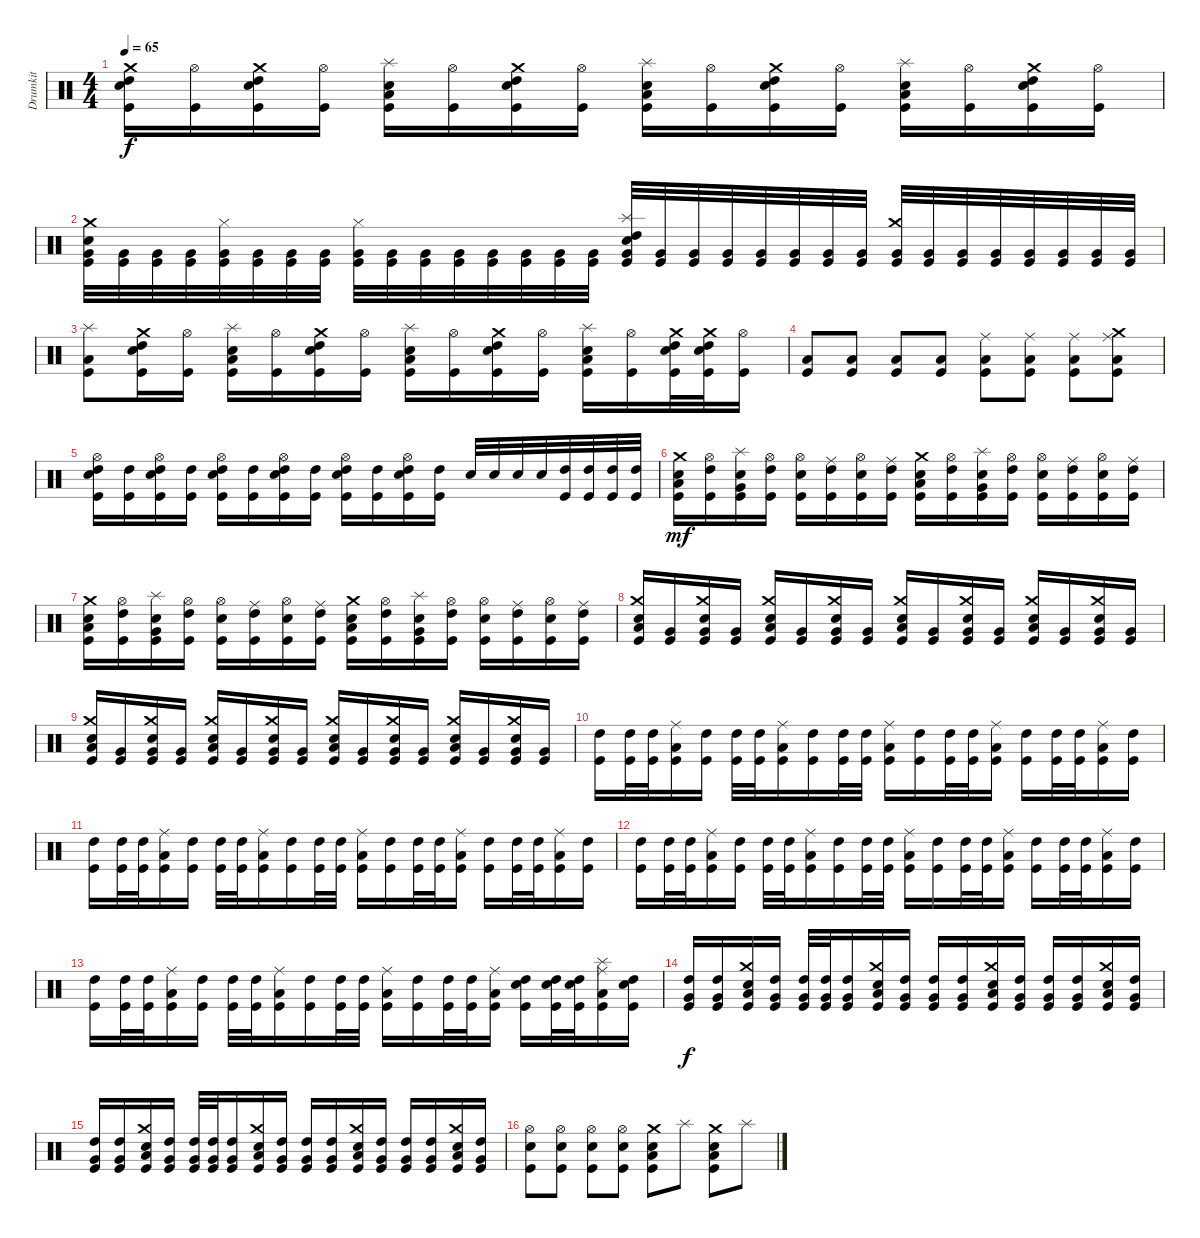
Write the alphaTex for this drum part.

\track ("Drumkit" "Drumkit") {instrument percussion}
\staff {score}
\articulation defaults
\ts (4 4)
\tempo 65
\clef neutral
\ks c
("Kick (hit)" "Snare (hit) 2" "High Tom (hit)" "Crash medium (hit)").16{dy f} ("Kick (hit)" "Hi-Hat (open)").16 ("Kick (hit)" "Snare (hit) 2" "High Tom (hit)" "Crash medium (hit)").16 ("Kick (hit)" "Hi-Hat (open)").16 ("Kick (hit)" "Low Tom (hit)" "Splash (hit)" "Snare (hit) 2").16 ("Kick (hit)" "Hi-Hat (open)").16 ("Kick (hit)" "Snare (hit) 2" "High Tom (hit)" "Crash medium (hit)").16 ("Kick (hit)" "Hi-Hat (open)").16 ("Kick (hit)" "Low Tom (hit)" "Splash (hit)" "Snare (hit) 2").16 ("Kick (hit)" "Hi-Hat (open)").16 ("Kick (hit)" "Snare (hit) 2" "High Tom (hit)" "Crash medium (hit)").16 ("Kick (hit)" "Hi-Hat (open)").16 ("Kick (hit)" "Low Tom (hit)" "Splash (hit)" "Snare (hit) 2").16 ("Kick (hit)" "Hi-Hat (open)").16 ("Kick (hit)" "Snare (hit) 2" "High Tom (hit)" "Crash medium (hit)").16 ("Kick (hit)" "Hi-Hat (open)").16 |
("Kick (hit)" "Very Low Tom (hit)" "Snare (hit) 2" "Crash medium (hit)").32 ("Kick (hit)" "Very Low Tom (hit)").32 ("Kick (hit)" "Very Low Tom (hit)").32 ("Kick (hit)" "Very Low Tom (hit)").32 ("Kick (hit)" "Very Low Tom (hit)" "Hi-Hat (closed)").32 ("Kick (hit)" "Very Low Tom (hit)").32 ("Kick (hit)" "Very Low Tom (hit)").32 ("Kick (hit)" "Very Low Tom (hit)").32 ("Kick (hit)" "Very Low Tom (hit)" "Hi-Hat (closed)").32 ("Kick (hit)" "Very Low Tom (hit)").32 ("Kick (hit)" "Very Low Tom (hit)").32 ("Kick (hit)" "Very Low Tom (hit)").32 ("Kick (hit)" "Very Low Tom (hit)").32 ("Kick (hit)" "Very Low Tom (hit)").32 ("Kick (hit)" "Very Low Tom (hit)").32 ("Kick (hit)" "Very Low Tom (hit)").32 ("Kick (hit)" "Very Low Tom (hit)" "Snare (hit) 2" "High Tom (hit)" "Splash (hit)").32 ("Kick (hit)" "Very Low Tom (hit)").32 ("Kick (hit)" "Very Low Tom (hit)").32 ("Kick (hit)" "Very Low Tom (hit)").32 ("Kick (hit)" "Very Low Tom (hit)").32 ("Kick (hit)" "Very Low Tom (hit)").32 ("Kick (hit)" "Very Low Tom (hit)").32 ("Kick (hit)" "Very Low Tom (hit)").32 ("Kick (hit)" "Very Low Tom (hit)" "Crash medium (hit)").32 ("Kick (hit)" "Very Low Tom (hit)").32 ("Kick (hit)" "Very Low Tom (hit)").32 ("Kick (hit)" "Very Low Tom (hit)").32 ("Kick (hit)" "Very Low Tom (hit)").32 ("Kick (hit)" "Very Low Tom (hit)").32 ("Kick (hit)" "Very Low Tom (hit)").32 ("Kick (hit)" "Very Low Tom (hit)").32 |
("Splash (hit)" "Kick (hit)" "Low Tom (hit)").8 ("Kick (hit)" "Snare (hit) 2" "High Tom (hit)" "Crash medium (hit)").16 ("Kick (hit)" "Hi-Hat (open)").16 ("Kick (hit)" "Low Tom (hit)" "Splash (hit)" "Snare (hit) 2").16 ("Kick (hit)" "Hi-Hat (open)").16 ("Kick (hit)" "Snare (hit) 2" "High Tom (hit)" "Crash medium (hit)").16 ("Kick (hit)" "Hi-Hat (open)").16 ("Kick (hit)" "Low Tom (hit)" "Splash (hit)" "Snare (hit) 2").16 ("Kick (hit)" "Hi-Hat (open)").16 ("Kick (hit)" "Snare (hit) 2" "High Tom (hit)" "Crash medium (hit)").16 ("Kick (hit)" "Hi-Hat (open)").16 ("Kick (hit)" "Low Tom (hit)" "Splash (hit)" "Snare (hit) 2").16 ("Kick (hit)" "Hi-Hat (open)").16 ("Kick (hit)" "Snare (hit) 2" "High Tom (hit)" "Crash medium (hit)").32 ("Kick (hit)" "Snare (hit) 2" "High Tom (hit)" "Crash medium (hit)").32 ("Kick (hit)" "Hi-Hat (open)").16 |
("Kick (hit)" "Low Tom (hit)").8 ("Kick (hit)" "Low Tom (hit)").8 ("Kick (hit)" "Low Tom (hit)").8 ("Kick (hit)" "Low Tom (hit)").8 ("Kick (hit)" "Low Tom (hit)" "Ride (middle)").8 ("Kick (hit)" "Low Tom (hit)" "Ride (middle)").8 ("Kick (hit)" "Low Tom (hit)" "Ride (middle)").8 ("Kick (hit)" "Low Tom (hit)" "Ride (middle)" "Crash medium (hit)").8 |
("Kick (hit)" "Snare (hit) 2" "Hi-Hat (open)" "High Tom (hit)").16 ("Kick (hit)" "High Tom (hit)").16 ("Kick (hit)" "Snare (hit) 2" "Hi-Hat (open)" "High Tom (hit)").16 ("Kick (hit)" "High Tom (hit)").16 ("Kick (hit)" "Snare (hit) 2" "Hi-Hat (open)" "High Tom (hit)").16 ("Kick (hit)" "High Tom (hit)").16 ("Kick (hit)" "Snare (hit) 2" "Hi-Hat (open)" "High Tom (hit)").16 ("Kick (hit)" "High Tom (hit)").16 ("Kick (hit)" "Snare (hit) 2" "Hi-Hat (open)" "High Tom (hit)").16 ("Kick (hit)" "High Tom (hit)").16 ("Kick (hit)" "Snare (hit) 2" "Hi-Hat (open)" "High Tom (hit)").16 ("Kick (hit)" "High Tom (hit)").16 "Snare (hit) 2".32 "Snare (hit) 2".32 "Snare (hit) 2".32 "Snare (hit) 2".32 ("Kick (hit)" "High Tom (hit)").32 ("Kick (hit)" "High Tom (hit)").32 ("Kick (hit)" "High Tom (hit)").32 ("Kick (hit)" "High Tom (hit)").32 |
("Kick (hit)" "Snare (hit) 2" "Crash medium (hit)" "Low Tom (hit)").16{dy mf} ("Kick (hit)" "Hi-Hat (open)" "High Tom (hit)").16 ("Kick (hit)" "Splash (hit)" "Very Low Tom (hit)" "Snare (hit) 2").16 ("Kick (hit)" "Hi-Hat (open)" "High Tom (hit)").16 ("Snare (hit) 2" "Hi-Hat (open)" "Kick (hit)").16 ("Kick (hit)" "Ride (middle)" "High Tom (hit)").16 ("Snare (hit) 2" "Hi-Hat (open)" "Kick (hit)").16 ("Kick (hit)" "Ride (middle)" "High Tom (hit)").16 ("Kick (hit)" "Snare (hit) 2" "Crash medium (hit)" "Low Tom (hit)").16 ("Kick (hit)" "Hi-Hat (open)" "High Tom (hit)").16 ("Kick (hit)" "Splash (hit)" "Very Low Tom (hit)" "Snare (hit) 2").16 ("Kick (hit)" "Hi-Hat (open)" "High Tom (hit)").16 ("Snare (hit) 2" "Hi-Hat (open)" "Kick (hit)").16 ("Kick (hit)" "Ride (middle)" "High Tom (hit)").16 ("Snare (hit) 2" "Hi-Hat (open)" "Kick (hit)").16 ("Kick (hit)" "Ride (middle)" "High Tom (hit)").16 |
("Kick (hit)" "Snare (hit) 2" "Crash medium (hit)" "Low Tom (hit)").16 ("Kick (hit)" "Hi-Hat (open)" "High Tom (hit)").16 ("Kick (hit)" "Splash (hit)" "Very Low Tom (hit)" "Snare (hit) 2").16 ("Kick (hit)" "Hi-Hat (open)" "High Tom (hit)").16 ("Snare (hit) 2" "Hi-Hat (open)" "Kick (hit)").16 ("Kick (hit)" "Ride (middle)" "High Tom (hit)").16 ("Snare (hit) 2" "Hi-Hat (open)" "Kick (hit)").16 ("Kick (hit)" "Ride (middle)" "High Tom (hit)").16 ("Kick (hit)" "Snare (hit) 2" "Crash medium (hit)" "Low Tom (hit)").16 ("Kick (hit)" "Hi-Hat (open)" "High Tom (hit)").16 ("Kick (hit)" "Splash (hit)" "Very Low Tom (hit)" "Snare (hit) 2").16 ("Kick (hit)" "Hi-Hat (open)" "High Tom (hit)").16 ("Snare (hit) 2" "Hi-Hat (open)" "Kick (hit)").16 ("Kick (hit)" "Ride (middle)" "High Tom (hit)").16 ("Snare (hit) 2" "Hi-Hat (open)" "Kick (hit)").16 ("Kick (hit)" "Ride (middle)" "High Tom (hit)").16 |
("Kick (hit)" "Snare (hit) 2" "Crash medium (hit)" "Low Tom (hit)").16 ("Kick (hit)" "Very Low Tom (hit)").16 ("Kick (hit)" "Very Low Tom (hit)" "Snare (hit) 2" "Crash medium (hit)").16 ("Kick (hit)" "Very Low Tom (hit)").16 ("Kick (hit)" "Snare (hit) 2" "Crash medium (hit)" "Low Tom (hit)").16 ("Kick (hit)" "Very Low Tom (hit)").16 ("Kick (hit)" "Very Low Tom (hit)" "Snare (hit) 2" "Crash medium (hit)").16 ("Kick (hit)" "Very Low Tom (hit)").16 ("Kick (hit)" "Snare (hit) 2" "Crash medium (hit)" "Low Tom (hit)").16 ("Kick (hit)" "Very Low Tom (hit)").16 ("Kick (hit)" "Very Low Tom (hit)" "Snare (hit) 2" "Crash medium (hit)").16 ("Kick (hit)" "Very Low Tom (hit)").16 ("Kick (hit)" "Snare (hit) 2" "Crash medium (hit)" "Low Tom (hit)").16 ("Kick (hit)" "Very Low Tom (hit)").16 ("Kick (hit)" "Very Low Tom (hit)" "Snare (hit) 2" "Crash medium (hit)").16 ("Kick (hit)" "Very Low Tom (hit)").16 |
("Kick (hit)" "Snare (hit) 2" "Crash medium (hit)" "Low Tom (hit)").16 ("Kick (hit)" "Very Low Tom (hit)").16 ("Kick (hit)" "Very Low Tom (hit)" "Snare (hit) 2" "Crash medium (hit)").16 ("Kick (hit)" "Very Low Tom (hit)").16 ("Kick (hit)" "Snare (hit) 2" "Crash medium (hit)" "Low Tom (hit)").16 ("Kick (hit)" "Very Low Tom (hit)").16 ("Kick (hit)" "Very Low Tom (hit)" "Snare (hit) 2" "Crash medium (hit)").16 ("Kick (hit)" "Very Low Tom (hit)").16 ("Kick (hit)" "Snare (hit) 2" "Crash medium (hit)" "Low Tom (hit)").16 ("Kick (hit)" "Very Low Tom (hit)").16 ("Kick (hit)" "Very Low Tom (hit)" "Snare (hit) 2" "Crash medium (hit)").16 ("Kick (hit)" "Very Low Tom (hit)").16 ("Kick (hit)" "Snare (hit) 2" "Crash medium (hit)" "Low Tom (hit)").16 ("Kick (hit)" "Very Low Tom (hit)").16 ("Kick (hit)" "Very Low Tom (hit)" "Snare (hit) 2" "Crash medium (hit)").16 ("Kick (hit)" "Very Low Tom (hit)").16 |
("Kick (hit)" "High Tom (hit)").16 ("Kick (hit)" "High Tom (hit)").32 ("Kick (hit)" "High Tom (hit)").32 ("Kick (hit)" "Low Tom (hit)" "Ride (middle)").16 ("Kick (hit)" "High Tom (hit)").16 ("Kick (hit)" "High Tom (hit)").32 ("Kick (hit)" "High Tom (hit)").32 ("Kick (hit)" "Low Tom (hit)" "Ride (middle)").16 ("Kick (hit)" "High Tom (hit)").16 ("Kick (hit)" "High Tom (hit)").32 ("Kick (hit)" "High Tom (hit)").32 ("Kick (hit)" "Low Tom (hit)" "Ride (middle)").16 ("Kick (hit)" "High Tom (hit)").16 ("Kick (hit)" "High Tom (hit)").32 ("Kick (hit)" "High Tom (hit)").32 ("Kick (hit)" "Low Tom (hit)" "Ride (middle)").16 ("Kick (hit)" "High Tom (hit)").16 ("Kick (hit)" "High Tom (hit)").32 ("Kick (hit)" "High Tom (hit)").32 ("Kick (hit)" "Low Tom (hit)" "Ride (middle)").16 ("Kick (hit)" "High Tom (hit)").16 |
("Kick (hit)" "High Tom (hit)").16 ("Kick (hit)" "High Tom (hit)").32 ("Kick (hit)" "High Tom (hit)").32 ("Kick (hit)" "Low Tom (hit)" "Ride (middle)").16 ("Kick (hit)" "High Tom (hit)").16 ("Kick (hit)" "High Tom (hit)").32 ("Kick (hit)" "High Tom (hit)").32 ("Kick (hit)" "Low Tom (hit)" "Ride (middle)").16 ("Kick (hit)" "High Tom (hit)").16 ("Kick (hit)" "High Tom (hit)").32 ("Kick (hit)" "High Tom (hit)").32 ("Kick (hit)" "Low Tom (hit)" "Ride (middle)").16 ("Kick (hit)" "High Tom (hit)").16 ("Kick (hit)" "High Tom (hit)").32 ("Kick (hit)" "High Tom (hit)").32 ("Kick (hit)" "Low Tom (hit)" "Ride (middle)").16 ("Kick (hit)" "High Tom (hit)").16 ("Kick (hit)" "High Tom (hit)").32 ("Kick (hit)" "High Tom (hit)").32 ("Kick (hit)" "Low Tom (hit)" "Ride (middle)").16 ("Kick (hit)" "High Tom (hit)").16 |
("Kick (hit)" "High Tom (hit)").16 ("Kick (hit)" "High Tom (hit)").32 ("Kick (hit)" "High Tom (hit)").32 ("Kick (hit)" "Low Tom (hit)" "Ride (middle)").16 ("Kick (hit)" "High Tom (hit)").16 ("Kick (hit)" "High Tom (hit)").32 ("Kick (hit)" "High Tom (hit)").32 ("Kick (hit)" "Low Tom (hit)" "Ride (middle)").16 ("Kick (hit)" "High Tom (hit)").16 ("Kick (hit)" "High Tom (hit)").32 ("Kick (hit)" "High Tom (hit)").32 ("Kick (hit)" "Low Tom (hit)" "Ride (middle)").16 ("Kick (hit)" "High Tom (hit)").16 ("Kick (hit)" "High Tom (hit)").32 ("Kick (hit)" "High Tom (hit)").32 ("Kick (hit)" "Low Tom (hit)" "Ride (middle)").16 ("Kick (hit)" "High Tom (hit)").16 ("Kick (hit)" "High Tom (hit)").32 ("Kick (hit)" "High Tom (hit)").32 ("Kick (hit)" "Low Tom (hit)" "Ride (middle)").16 ("Kick (hit)" "High Tom (hit)").16 |
("Kick (hit)" "High Tom (hit)").16 ("Kick (hit)" "High Tom (hit)").32 ("Kick (hit)" "High Tom (hit)").32 ("Kick (hit)" "Low Tom (hit)" "Ride (middle)").16 ("Kick (hit)" "High Tom (hit)").16 ("Kick (hit)" "High Tom (hit)").32 ("Kick (hit)" "High Tom (hit)").32 ("Kick (hit)" "Low Tom (hit)" "Ride (middle)").16 ("Kick (hit)" "High Tom (hit)").16 ("Kick (hit)" "High Tom (hit)").32 ("Kick (hit)" "High Tom (hit)").32 ("Kick (hit)" "Low Tom (hit)" "Ride (middle)").16 ("Kick (hit)" "High Tom (hit)").16 ("Kick (hit)" "High Tom (hit)").32 ("Kick (hit)" "High Tom (hit)").32 ("Kick (hit)" "Low Tom (hit)" "Ride (middle)").16 ("Kick (hit)" "High Tom (hit)" "Snare (hit) 2").16 ("Kick (hit)" "High Tom (hit)" "Snare (hit) 2").32 ("Kick (hit)" "High Tom (hit)" "Snare (hit) 2").32 ("Kick (hit)" "Low Tom (hit)" "Ride (middle)" "Splash (hit)").16 ("Kick (hit)" "High Tom (hit)" "Snare (hit) 2").16 |
("Kick (hit)" "Very Low Tom (hit)" "High Tom (hit)").16{dy f} ("Kick (hit)" "Very Low Tom (hit)" "High Tom (hit)").16 ("Kick (hit)" "Snare (hit) 2" "Low Tom (hit)" "Crash medium (hit)").16 ("Kick (hit)" "Very Low Tom (hit)" "High Tom (hit)").16 ("Kick (hit)" "Very Low Tom (hit)" "High Tom (hit)").32 ("Kick (hit)" "Very Low Tom (hit)" "High Tom (hit)").32 ("Kick (hit)" "Very Low Tom (hit)" "High Tom (hit)").16 ("Kick (hit)" "Snare (hit) 2" "Low Tom (hit)" "Crash medium (hit)").16 ("Kick (hit)" "Very Low Tom (hit)" "High Tom (hit)").16 ("Kick (hit)" "Very Low Tom (hit)" "High Tom (hit)").16 ("Kick (hit)" "Very Low Tom (hit)" "High Tom (hit)").16 ("Kick (hit)" "Snare (hit) 2" "Low Tom (hit)" "Crash medium (hit)").16 ("Kick (hit)" "Very Low Tom (hit)" "High Tom (hit)").16 ("Kick (hit)" "Very Low Tom (hit)" "High Tom (hit)").16 ("Kick (hit)" "Very Low Tom (hit)" "High Tom (hit)").16 ("Kick (hit)" "Snare (hit) 2" "Low Tom (hit)" "Crash medium (hit)").16 ("Kick (hit)" "Very Low Tom (hit)" "High Tom (hit)").16 |
("Kick (hit)" "Very Low Tom (hit)" "High Tom (hit)").16 ("Kick (hit)" "Very Low Tom (hit)" "High Tom (hit)").16 ("Kick (hit)" "Snare (hit) 2" "Low Tom (hit)" "Crash medium (hit)").16 ("Kick (hit)" "Very Low Tom (hit)" "High Tom (hit)").16 ("Kick (hit)" "Very Low Tom (hit)" "High Tom (hit)").32 ("Kick (hit)" "Very Low Tom (hit)" "High Tom (hit)").32 ("Kick (hit)" "Very Low Tom (hit)" "High Tom (hit)").16 ("Kick (hit)" "Snare (hit) 2" "Low Tom (hit)" "Crash medium (hit)").16 ("Kick (hit)" "Very Low Tom (hit)" "High Tom (hit)").16 ("Kick (hit)" "Very Low Tom (hit)" "High Tom (hit)").16 ("Kick (hit)" "Very Low Tom (hit)" "High Tom (hit)").16 ("Kick (hit)" "Snare (hit) 2" "Low Tom (hit)" "Crash medium (hit)").16 ("Kick (hit)" "Very Low Tom (hit)" "High Tom (hit)").16 ("Kick (hit)" "Very Low Tom (hit)" "High Tom (hit)").16 ("Kick (hit)" "Very Low Tom (hit)" "High Tom (hit)").16 ("Kick (hit)" "Snare (hit) 2" "Low Tom (hit)" "Crash medium (hit)").16 ("Kick (hit)" "Very Low Tom (hit)" "High Tom (hit)").16 |
("Kick (hit)" "Snare (hit) 2" "Hi-Hat (open)").8 ("Kick (hit)" "Snare (hit) 2" "Hi-Hat (open)").8 ("Kick (hit)" "Snare (hit) 2" "Hi-Hat (open)").8 ("Kick (hit)" "Snare (hit) 2" "Hi-Hat (open)").8 ("Kick (hit)" "Snare (hit) 2" "Crash medium (hit)" "Low Tom (hit)").8 "Splash (hit)".8 ("Kick (hit)" "Snare (hit) 2" "Crash medium (hit)" "Low Tom (hit)").8 "Splash (hit)".8
